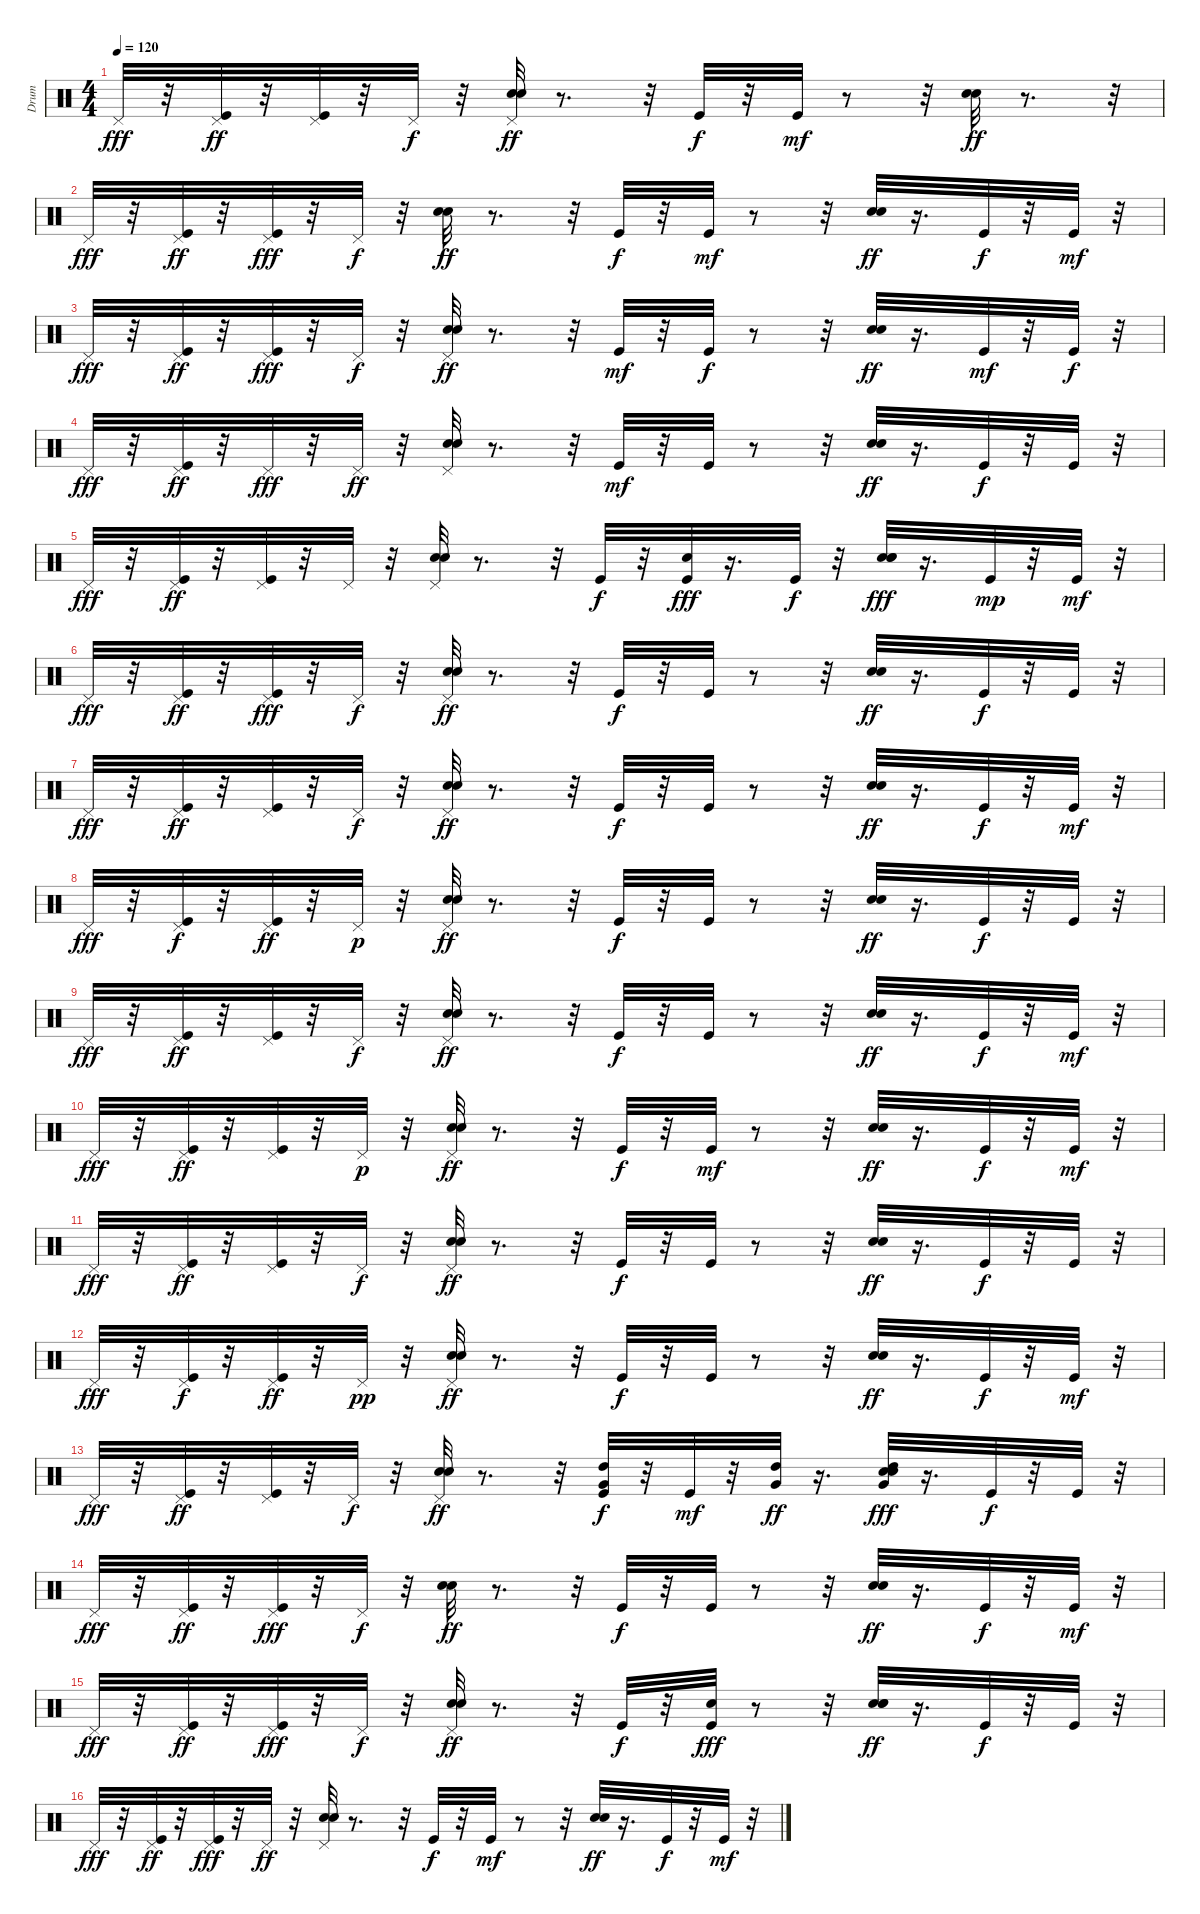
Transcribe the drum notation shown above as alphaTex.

\track ("Drum" "Drum") {instrument percussion}
\staff {score}
\articulation defaults
\ts (4 4)
\tempo 120
\clef neutral
\ks c "Pedal Hi-Hat (hit)".32{dy fff}
r.32 ("Kick (hit)" "Pedal Hi-Hat (hit)").32{dy ff} r.32 ("Kick (hit)" "Pedal Hi-Hat (hit)").32 r.32 "Pedal Hi-Hat (hit)".32{dy f} r.32 ("Snare (hit) 2" "Electric Snare (hit)" "Pedal Hi-Hat (hit)").32{dy ff} r.8{d} r.32 "Kick (hit)".32{dy f} r.32 "Kick (hit)".32{dy mf} r.8 r.32 ("Snare (hit) 2" "Electric Snare (hit)").32{dy ff} r.8{d} r.32 |
"Pedal Hi-Hat (hit)".32{dy fff} r.32 ("Kick (hit)" "Pedal Hi-Hat (hit)").32{dy ff} r.32 ("Kick (hit)" "Pedal Hi-Hat (hit)").32{dy fff} r.32 "Pedal Hi-Hat (hit)".32{dy f} r.32 ("Snare (hit) 2" "Electric Snare (hit)").32{dy ff} r.8{d} r.32 "Kick (hit)".32{dy f} r.32 "Kick (hit)".32{dy mf} r.8 r.32 ("Snare (hit) 2" "Electric Snare (hit)").32{dy ff} r.16{d} "Kick (hit)".32{dy f} r.32 "Kick (hit)".32{dy mf} r.32 |
"Pedal Hi-Hat (hit)".32{dy fff} r.32 ("Kick (hit)" "Pedal Hi-Hat (hit)").32{dy ff} r.32 ("Kick (hit)" "Pedal Hi-Hat (hit)").32{dy fff} r.32 "Pedal Hi-Hat (hit)".32{dy f} r.32 ("Snare (hit) 2" "Electric Snare (hit)" "Pedal Hi-Hat (hit)").32{dy ff} r.8{d} r.32 "Kick (hit)".32{dy mf} r.32 "Kick (hit)".32{dy f} r.8 r.32 ("Snare (hit) 2" "Electric Snare (hit)").32{dy ff} r.16{d} "Kick (hit)".32{dy mf} r.32 "Kick (hit)".32{dy f} r.32 |
"Pedal Hi-Hat (hit)".32{dy fff} r.32 ("Kick (hit)" "Pedal Hi-Hat (hit)").32{dy ff} r.32 "Pedal Hi-Hat (hit)".32{dy fff} r.32 "Pedal Hi-Hat (hit)".32{dy ff} r.32 ("Snare (hit) 2" "Electric Snare (hit)" "Pedal Hi-Hat (hit)").32 r.8{d} r.32 "Kick (hit)".32{dy mf} r.32 "Kick (hit)".32 r.8 r.32 ("Snare (hit) 2" "Electric Snare (hit)").32{dy ff} r.16{d} "Kick (hit)".32{dy f} r.32 "Kick (hit)".32 r.32 |
"Pedal Hi-Hat (hit)".32{dy fff} r.32 ("Kick (hit)" "Pedal Hi-Hat (hit)").32{dy ff} r.32 ("Kick (hit)" "Pedal Hi-Hat (hit)").32 r.32 "Pedal Hi-Hat (hit)".32 r.32 ("Snare (hit) 2" "Electric Snare (hit)" "Pedal Hi-Hat (hit)").32 r.8{d} r.32 "Kick (hit)".32{dy f} r.32 ("Kick (hit)" "Hand Clap (hit)").32{dy fff} r.16{d} "Kick (hit)".32{dy f} r.32 ("Snare (hit) 2" "Electric Snare (hit)" "Hand Clap (hit)").32{dy fff} r.16{d} "Kick (hit)".32{dy mp} r.32 "Kick (hit)".32{dy mf} r.32 |
"Pedal Hi-Hat (hit)".32{dy fff} r.32 ("Kick (hit)" "Pedal Hi-Hat (hit)").32{dy ff} r.32 ("Kick (hit)" "Pedal Hi-Hat (hit)").32{dy fff} r.32 "Pedal Hi-Hat (hit)".32{dy f} r.32 ("Snare (hit) 2" "Electric Snare (hit)" "Pedal Hi-Hat (hit)").32{dy ff} r.8{d} r.32 "Kick (hit)".32{dy f} r.32 "Kick (hit)".32 r.8 r.32 ("Electric Snare (hit)" "Snare (hit) 2").32{dy ff} r.16{d} "Kick (hit)".32{dy f} r.32 "Kick (hit)".32 r.32 |
"Pedal Hi-Hat (hit)".32{dy fff} r.32 ("Kick (hit)" "Pedal Hi-Hat (hit)").32{dy ff} r.32 ("Kick (hit)" "Pedal Hi-Hat (hit)").32 r.32 "Pedal Hi-Hat (hit)".32{dy f} r.32 ("Snare (hit) 2" "Electric Snare (hit)" "Pedal Hi-Hat (hit)").32{dy ff} r.8{d} r.32 "Kick (hit)".32{dy f} r.32 "Kick (hit)".32 r.8 r.32 ("Snare (hit) 2" "Electric Snare (hit)").32{dy ff} r.16{d} "Kick (hit)".32{dy f} r.32 "Kick (hit)".32{dy mf} r.32 |
"Pedal Hi-Hat (hit)".32{dy fff} r.32 ("Pedal Hi-Hat (hit)" "Kick (hit)").32{dy f} r.32 ("Kick (hit)" "Pedal Hi-Hat (hit)").32{dy ff} r.32 "Pedal Hi-Hat (hit)".32{dy p} r.32 ("Snare (hit) 2" "Electric Snare (hit)" "Pedal Hi-Hat (hit)").32{dy ff} r.8{d} r.32 "Kick (hit)".32{dy f} r.32 "Kick (hit)".32 r.8 r.32 ("Snare (hit) 2" "Electric Snare (hit)").32{dy ff} r.16{d} "Kick (hit)".32{dy f} r.32 "Kick (hit)".32 r.32 |
"Pedal Hi-Hat (hit)".32{dy fff} r.32 ("Kick (hit)" "Pedal Hi-Hat (hit)").32{dy ff} r.32 ("Kick (hit)" "Pedal Hi-Hat (hit)").32 r.32 "Pedal Hi-Hat (hit)".32{dy f} r.32 ("Pedal Hi-Hat (hit)" "Snare (hit) 2" "Electric Snare (hit)").32{dy ff} r.8{d} r.32 "Kick (hit)".32{dy f} r.32 "Kick (hit)".32 r.8 r.32 ("Electric Snare (hit)" "Snare (hit) 2").32{dy ff} r.16{d} "Kick (hit)".32{dy f} r.32 "Kick (hit)".32{dy mf} r.32 |
"Pedal Hi-Hat (hit)".32{dy fff} r.32 ("Kick (hit)" "Pedal Hi-Hat (hit)").32{dy ff} r.32 ("Kick (hit)" "Pedal Hi-Hat (hit)").32 r.32 "Pedal Hi-Hat (hit)".32{dy p} r.32 ("Snare (hit) 2" "Electric Snare (hit)" "Pedal Hi-Hat (hit)").32{dy ff} r.8{d} r.32 "Kick (hit)".32{dy f} r.32 "Kick (hit)".32{dy mf} r.8 r.32 ("Snare (hit) 2" "Electric Snare (hit)").32{dy ff} r.16{d} "Kick (hit)".32{dy f} r.32 "Kick (hit)".32{dy mf} r.32 |
"Pedal Hi-Hat (hit)".32{dy fff} r.32 ("Pedal Hi-Hat (hit)" "Kick (hit)").32{dy ff} r.32 ("Kick (hit)" "Pedal Hi-Hat (hit)").32 r.32 "Pedal Hi-Hat (hit)".32{dy f} r.32 ("Snare (hit) 2" "Electric Snare (hit)" "Pedal Hi-Hat (hit)").32{dy ff} r.8{d} r.32 "Kick (hit)".32{dy f} r.32 "Kick (hit)".32 r.8 r.32 ("Snare (hit) 2" "Electric Snare (hit)").32{dy ff} r.16{d} "Kick (hit)".32{dy f} r.32 "Kick (hit)".32 r.32 |
"Pedal Hi-Hat (hit)".32{dy fff} r.32 ("Kick (hit)" "Pedal Hi-Hat (hit)").32{dy f} r.32 ("Kick (hit)" "Pedal Hi-Hat (hit)").32{dy ff} r.32 "Pedal Hi-Hat (hit)".32{dy pp} r.32 ("Snare (hit) 2" "Electric Snare (hit)" "Pedal Hi-Hat (hit)").32{dy ff} r.8{d} r.32 "Kick (hit)".32{dy f} r.32 "Kick (hit)".32 r.8 r.32 ("Snare (hit) 2" "Electric Snare (hit)").32{dy ff} r.16{d} "Kick (hit)".32{dy f} r.32 "Kick (hit)".32{dy mf} r.32 |
"Pedal Hi-Hat (hit)".32{dy fff} r.32 ("Kick (hit)" "Pedal Hi-Hat (hit)").32{dy ff} r.32 ("Kick (hit)" "Pedal Hi-Hat (hit)").32 r.32 "Pedal Hi-Hat (hit)".32{dy f} r.32 ("Snare (hit) 2" "Electric Snare (hit)" "Pedal Hi-Hat (hit)").32{dy ff} r.8{d} r.32 ("High Tom (hit)" "Very Low Tom (hit)" "Kick (hit)").32{dy f} r.32 "Kick (hit)".32{dy mf} r.32 ("Very Low Tom (hit)" "High Tom (hit)").32{dy ff} r.16{d} ("Snare (hit) 2" "Electric Snare (hit)" "High Tom (hit)" "Very Low Tom (hit)").32{dy fff} r.16{d} "Kick (hit)".32{dy f} r.32 "Kick (hit)".32 r.32 |
"Pedal Hi-Hat (hit)".32{dy fff} r.32 ("Kick (hit)" "Pedal Hi-Hat (hit)").32{dy ff} r.32 ("Kick (hit)" "Pedal Hi-Hat (hit)").32{dy fff} r.32 "Pedal Hi-Hat (hit)".32{dy f} r.32 ("Electric Snare (hit)" "Snare (hit) 2").32{dy ff} r.8{d} r.32 "Kick (hit)".32{dy f} r.32 "Kick (hit)".32 r.8 r.32 ("Electric Snare (hit)" "Snare (hit) 2").32{dy ff} r.16{d} "Kick (hit)".32{dy f} r.32 "Kick (hit)".32{dy mf} r.32 |
"Pedal Hi-Hat (hit)".32{dy fff} r.32 ("Kick (hit)" "Pedal Hi-Hat (hit)").32{dy ff} r.32 ("Kick (hit)" "Pedal Hi-Hat (hit)").32{dy fff} r.32 "Pedal Hi-Hat (hit)".32{dy f} r.32 ("Electric Snare (hit)" "Snare (hit) 2" "Pedal Hi-Hat (hit)").32{dy ff} r.8{d} r.32 "Kick (hit)".32{dy f} r.32 ("Kick (hit)" "Hand Clap (hit)").32{dy fff} r.8 r.32 ("Hand Clap (hit)" "Snare (hit) 2" "Electric Snare (hit)").32{dy ff} r.16{d} "Kick (hit)".32{dy f} r.32 "Kick (hit)".32 r.32 |
"Pedal Hi-Hat (hit)".32{dy fff} r.32 ("Kick (hit)" "Pedal Hi-Hat (hit)").32{dy ff} r.32 ("Kick (hit)" "Pedal Hi-Hat (hit)").32{dy fff} r.32 "Pedal Hi-Hat (hit)".32{dy ff} r.32 ("Snare (hit) 2" "Electric Snare (hit)" "Pedal Hi-Hat (hit)").32 r.8{d} r.32 "Kick (hit)".32{dy f} r.32 "Kick (hit)".32{dy mf} r.8 r.32 ("Snare (hit) 2" "Electric Snare (hit)").32{dy ff} r.16{d} "Kick (hit)".32{dy f} r.32 "Kick (hit)".32{dy mf} r.32
